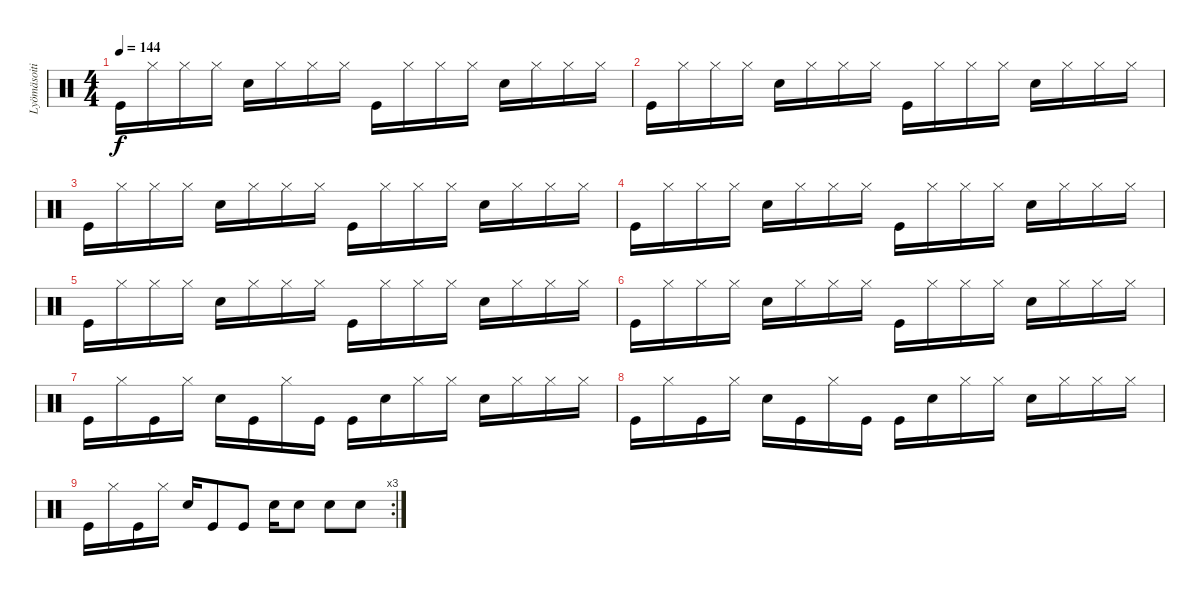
\track ("Lyömäsoitin" "Lyömäsoiti") {instrument percussion}
\staff {score}
\articulation defaults
\ts (4 4)
\tempo 144
\clef neutral
\ks c "Kick (hit)".16{dy f} "Hi-Hat (closed)".16 "Hi-Hat (closed)".16 "Hi-Hat (closed)".16 "Snare (hit) 2".16 "Hi-Hat (closed)".16 "Hi-Hat (closed)".16 "Hi-Hat (closed)".16 "Kick (hit)".16 "Hi-Hat (closed)".16 "Hi-Hat (closed)".16 "Hi-Hat (closed)".16 "Snare (hit) 2".16 "Hi-Hat (closed)".16 "Hi-Hat (closed)".16 "Hi-Hat (closed)".16
|
"Kick (hit)".16 "Hi-Hat (closed)".16 "Hi-Hat (closed)".16 "Hi-Hat (closed)".16 "Snare (hit) 2".16 "Hi-Hat (closed)".16 "Hi-Hat (closed)".16 "Hi-Hat (closed)".16 "Kick (hit)".16 "Hi-Hat (closed)".16 "Hi-Hat (closed)".16 "Hi-Hat (closed)".16 "Snare (hit) 2".16 "Hi-Hat (closed)".16 "Hi-Hat (closed)".16 "Hi-Hat (closed)".16 |
"Kick (hit)".16 "Hi-Hat (closed)".16 "Hi-Hat (closed)".16 "Hi-Hat (closed)".16 "Snare (hit) 2".16 "Hi-Hat (closed)".16 "Hi-Hat (closed)".16 "Hi-Hat (closed)".16 "Kick (hit)".16 "Hi-Hat (closed)".16 "Hi-Hat (closed)".16 "Hi-Hat (closed)".16 "Snare (hit) 2".16 "Hi-Hat (closed)".16 "Hi-Hat (closed)".16 "Hi-Hat (closed)".16 |
"Kick (hit)".16 "Hi-Hat (closed)".16 "Hi-Hat (closed)".16 "Hi-Hat (closed)".16 "Snare (hit) 2".16 "Hi-Hat (closed)".16 "Hi-Hat (closed)".16 "Hi-Hat (closed)".16 "Kick (hit)".16 "Hi-Hat (closed)".16 "Hi-Hat (closed)".16 "Hi-Hat (closed)".16 "Snare (hit) 2".16 "Hi-Hat (closed)".16 "Hi-Hat (closed)".16 "Hi-Hat (closed)".16 |
"Kick (hit)".16 "Hi-Hat (closed)".16 "Hi-Hat (closed)".16 "Hi-Hat (closed)".16 "Snare (hit) 2".16 "Hi-Hat (closed)".16 "Hi-Hat (closed)".16 "Hi-Hat (closed)".16 "Kick (hit)".16 "Hi-Hat (closed)".16 "Hi-Hat (closed)".16 "Hi-Hat (closed)".16 "Snare (hit) 2".16 "Hi-Hat (closed)".16 "Hi-Hat (closed)".16 "Hi-Hat (closed)".16 |
"Kick (hit)".16 "Hi-Hat (closed)".16 "Hi-Hat (closed)".16 "Hi-Hat (closed)".16 "Snare (hit) 2".16 "Hi-Hat (closed)".16 "Hi-Hat (closed)".16 "Hi-Hat (closed)".16 "Kick (hit)".16 "Hi-Hat (closed)".16 "Hi-Hat (closed)".16 "Hi-Hat (closed)".16 "Snare (hit) 2".16 "Hi-Hat (closed)".16 "Hi-Hat (closed)".16 "Hi-Hat (closed)".16 |
"Kick (hit)".16 "Hi-Hat (closed)".16 "Kick (hit)".16 "Hi-Hat (closed)".16 "Snare (hit) 2".16 "Kick (hit)".16 "Hi-Hat (closed)".16 "Kick (hit)".16 "Kick (hit)".16 "Snare (hit) 2".16 "Hi-Hat (closed)".16 "Hi-Hat (closed)".16 "Snare (hit) 2".16 "Hi-Hat (closed)".16 "Hi-Hat (closed)".16 "Hi-Hat (closed)".16 |
"Kick (hit)".16 "Hi-Hat (closed)".16 "Kick (hit)".16 "Hi-Hat (closed)".16 "Snare (hit) 2".16 "Kick (hit)".16 "Hi-Hat (closed)".16 "Kick (hit)".16 "Kick (hit)".16 "Snare (hit) 2".16 "Hi-Hat (closed)".16 "Hi-Hat (closed)".16 "Snare (hit) 2".16 "Hi-Hat (closed)".16 "Hi-Hat (closed)".16 "Hi-Hat (closed)".16 |
\rc 3 "Kick (hit)".16 "Hi-Hat (closed)".16 "Kick (hit)".16 "Hi-Hat (closed)".16 "Snare (hit) 2".16 "Kick (hit)".8 "Kick (hit)".8 "Snare (hit) 2".16 "Snare (hit) 2".8 "Snare (hit) 2".8 "Snare (hit) 2".8
